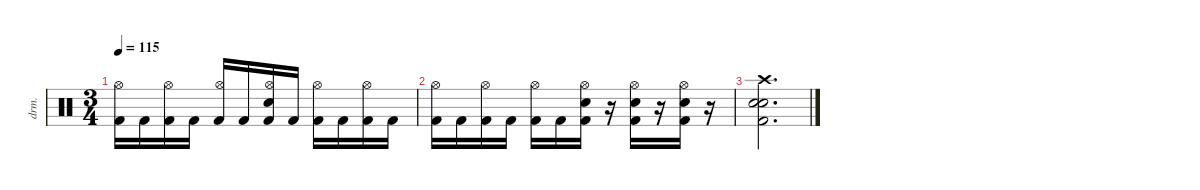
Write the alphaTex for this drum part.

\defaultSystemsLayout 4
\hideDynamics
\bracketExtendMode nobrackets
\otherSystemsTrackNameOrientation horizontal
\track ("Gene Hogland" "drm.") {instrument percussion}
\staff {score}
\articulation defaults
\ts (3 4)
\tempo 115
\clef neutral
\ks c
("Hi-Hat (open)" "Kick (hit) 2").16{dy f beam Down} "Kick (hit) 2".16{beam Down} ("Hi-Hat (open)" "Kick (hit) 2").16{beam Down} "Kick (hit) 2".16{beam Down} ("Hi-Hat (open)" "Kick (hit) 2").16{beam Up} "Kick (hit) 2".16{beam Up} ("Hi-Hat (open)" "Snare (hit) 2" "Kick (hit) 2").16{beam Up} "Kick (hit) 2".16{beam Up} ("Hi-Hat (open)" "Kick (hit) 2").16{beam Down} "Kick (hit) 2".16{beam Down} ("Hi-Hat (open)" "Kick (hit) 2").16{beam Down} "Kick (hit) 2".16{beam Down} |
("Hi-Hat (open)" "Kick (hit) 2").16{beam Down} "Kick (hit) 2".16{beam Down} ("Hi-Hat (open)" "Kick (hit) 2").16{beam Down} "Kick (hit) 2".16{beam Down} ("Hi-Hat (open)" "Kick (hit) 2").16{beam Down} "Kick (hit) 2".16{beam Down} ("Hi-Hat (open)" "Snare (hit) 2" "Kick (hit) 2").16{beam Down} r.16{beam Down} ("Hi-Hat (open)" "Snare (hit) 2" "Kick (hit) 2").16{beam Down} r.16{beam Down} ("Hi-Hat (open)" "Snare (hit) 2" "Kick (hit) 2").16{beam Down} r.16{beam Down} |
("Kick (hit) 2" "Crash high (hit)" "Snare (hit) 2" "Snare (hit) 2").2{d beam Down}
